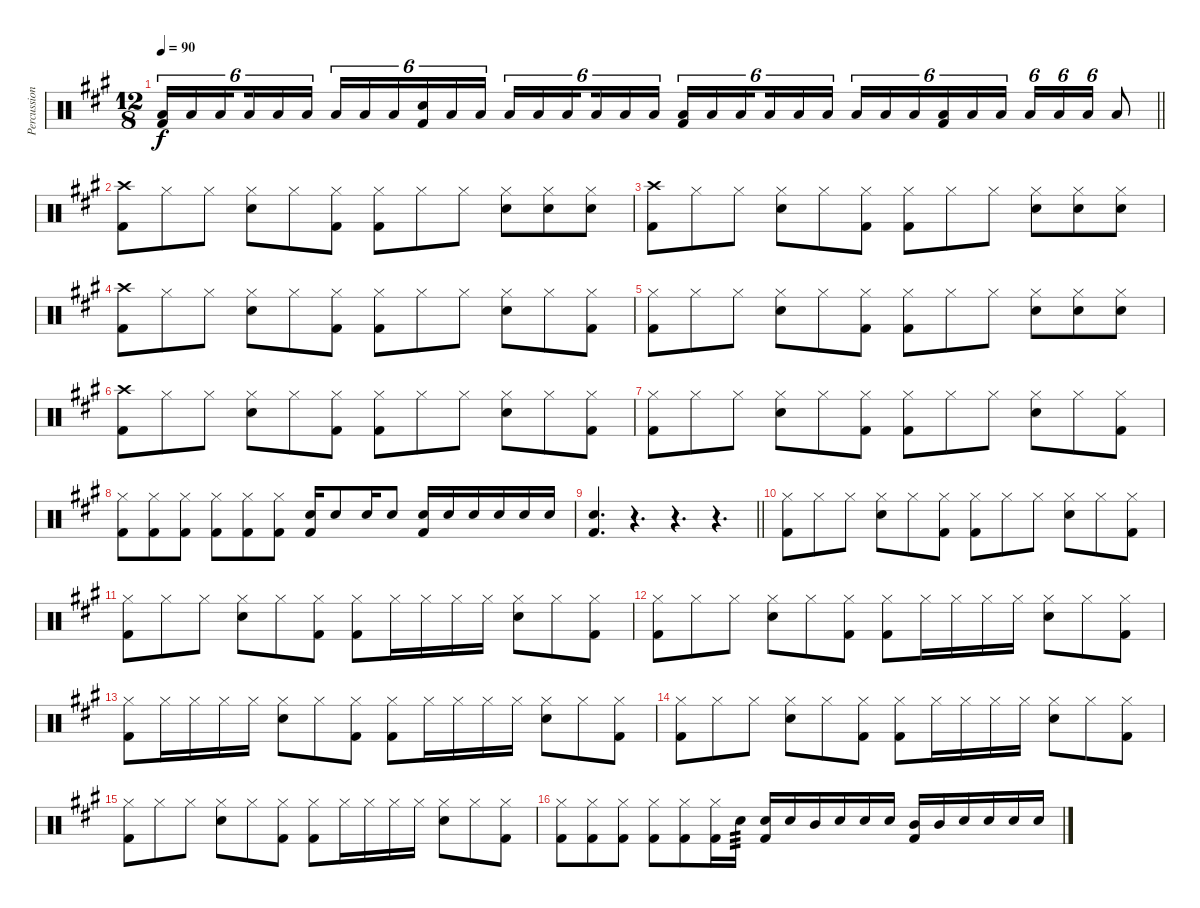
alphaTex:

\track ("Percussion" "Percussion") {instrument percussion}
\staff {score}
\articulation defaults
\ts (12 8)
\tempo 90
\clef neutral
\barLineRight lightlight
\ks a
("Low Tom (hit)" "Kick (hit) 2").16{tu (6 4) dy f} "Low Tom (hit)".16{tu (6 4)} "Low Tom (hit)".16{tu (6 4) beam splitsecondary} "Low Tom (hit)".16{tu (6 4)} "Low Tom (hit)".16{tu (6 4)} "Low Tom (hit)".16{tu (6 4) beam splitsecondary} "Low Tom (hit)".16{tu (6 4)} "Low Tom (hit)".16{tu (6 4)} "Low Tom (hit)".16{tu (6 4)} ("Snare (hit) 2" "Kick (hit) 2").16{tu (6 4)} "Low Tom (hit)".16{tu (6 4)} "Low Tom (hit)".16{tu (6 4) beam splitsecondary} "Low Tom (hit)".16{tu (6 4)} "Low Tom (hit)".16{tu (6 4)} "Low Tom (hit)".16{tu (6 4) beam splitsecondary} "Low Tom (hit)".16{tu (6 4)} "Low Tom (hit)".16{tu (6 4)} "Low Tom (hit)".16{tu (6 4)} ("Low Tom (hit)" "Kick (hit) 2").16{tu (6 4)} "Low Tom (hit)".16{tu (6 4)} "Low Tom (hit)".16{tu (6 4) beam splitsecondary} "Low Tom (hit)".16{tu (6 4)} "Low Tom (hit)".16{tu (6 4)} "Low Tom (hit)".16{tu (6 4) beam splitsecondary} "Low Tom (hit)".16{tu (6 4)} "Low Tom (hit)".16{tu (6 4)} "Low Tom (hit)".16{tu (6 4)} ("Low Floor Tom (hit)" "Kick (hit) 2").16{tu (6 4)} "Low Floor Tom (hit)".16{tu (6 4)} "Low Floor Tom (hit)".16{tu (6 4) beam splitsecondary} "Low Floor Tom (hit)".16{tu (6 4)} "Low Floor Tom (hit)".16{tu (6 4)} "Low Floor Tom (hit)".16{tu (6 4)} "Low Floor Tom (hit)".8 |
("Crash high (hit)" "Kick (hit) 2").8 "Hi-Hat (closed)".8 "Hi-Hat (closed)".8 ("Hi-Hat (closed)" "Snare (hit) 2").8 "Hi-Hat (closed)".8 ("Hi-Hat (closed)" "Kick (hit) 2").8 ("Hi-Hat (closed)" "Kick (hit) 2").8 "Hi-Hat (closed)".8 "Hi-Hat (closed)".8 ("Hi-Hat (closed)" "Snare (hit) 2").8 ("Hi-Hat (closed)" "Snare (hit) 2").8 ("Hi-Hat (closed)" "Snare (hit) 2").8 |
("Crash high (hit)" "Kick (hit) 2").8 "Hi-Hat (closed)".8 "Hi-Hat (closed)".8 ("Hi-Hat (closed)" "Snare (hit) 2").8 "Hi-Hat (closed)".8 ("Hi-Hat (closed)" "Kick (hit) 2").8 ("Hi-Hat (closed)" "Kick (hit) 2").8 "Hi-Hat (closed)".8 "Hi-Hat (closed)".8 ("Hi-Hat (closed)" "Snare (hit) 2").8 ("Hi-Hat (closed)" "Snare (hit) 2").8 ("Hi-Hat (closed)" "Snare (hit) 2").8 |
("Crash high (hit)" "Kick (hit) 2").8 "Hi-Hat (closed)".8 "Hi-Hat (closed)".8 ("Hi-Hat (closed)" "Snare (hit) 2").8 "Hi-Hat (closed)".8 ("Hi-Hat (closed)" "Kick (hit) 2").8 ("Hi-Hat (closed)" "Kick (hit) 2").8 "Hi-Hat (closed)".8 "Hi-Hat (closed)".8 ("Hi-Hat (closed)" "Snare (hit) 2").8 "Hi-Hat (closed)".8 ("Hi-Hat (closed)" "Kick (hit) 2").8 |
("Hi-Hat (closed)" "Kick (hit) 2").8 "Hi-Hat (closed)".8 "Hi-Hat (closed)".8 ("Hi-Hat (closed)" "Snare (hit) 2").8 "Hi-Hat (closed)".8 ("Hi-Hat (closed)" "Kick (hit) 2").8 ("Hi-Hat (closed)" "Kick (hit) 2").8 "Hi-Hat (closed)".8 "Hi-Hat (closed)".8 ("Hi-Hat (closed)" "Snare (hit) 2").8 ("Hi-Hat (closed)" "Snare (hit) 2").8 ("Hi-Hat (closed)" "Snare (hit) 2").8 |
("Crash high (hit)" "Kick (hit) 2").8 "Hi-Hat (closed)".8 "Hi-Hat (closed)".8 ("Hi-Hat (closed)" "Snare (hit) 2").8 "Hi-Hat (closed)".8 ("Hi-Hat (closed)" "Kick (hit) 2").8 ("Hi-Hat (closed)" "Kick (hit) 2").8 "Hi-Hat (closed)".8 "Hi-Hat (closed)".8 ("Hi-Hat (closed)" "Snare (hit) 2").8 "Hi-Hat (closed)".8 ("Hi-Hat (closed)" "Kick (hit) 2").8 |
("Hi-Hat (closed)" "Kick (hit) 2").8 "Hi-Hat (closed)".8 "Hi-Hat (closed)".8 ("Hi-Hat (closed)" "Snare (hit) 2").8 "Hi-Hat (closed)".8 ("Hi-Hat (closed)" "Kick (hit) 2").8 ("Hi-Hat (closed)" "Kick (hit) 2").8 "Hi-Hat (closed)".8 "Hi-Hat (closed)".8 ("Hi-Hat (closed)" "Snare (hit) 2").8 "Hi-Hat (closed)".8 ("Hi-Hat (closed)" "Kick (hit) 2").8 |
("Hi-Hat (closed)" "Kick (hit) 2").8 ("Hi-Hat (closed)" "Kick (hit) 2").8 ("Hi-Hat (closed)" "Kick (hit) 2").8 ("Hi-Hat (closed)" "Kick (hit) 2").8 ("Hi-Hat (closed)" "Kick (hit) 2").8 ("Hi-Hat (closed)" "Kick (hit) 2").8 ("Snare (hit) 2" "Kick (hit) 2").16 "Snare (hit) 2".8 "Snare (hit) 2".16 "Snare (hit) 2".8 ("Snare (hit) 2" "Kick (hit) 2").16 "Snare (hit) 2".16 "Snare (hit) 2".16 "Snare (hit) 2".16 "Snare (hit) 2".16 "Snare (hit) 2".16 |
\barLineRight lightlight
("Snare (hit) 2" "Kick (hit) 2").4{d} r.4{d} r.4{d} r.4{d} |
("Hi-Hat (closed)" "Kick (hit) 2").8 "Hi-Hat (closed)".8 "Hi-Hat (closed)".8 ("Hi-Hat (closed)" "Snare (hit) 2").8 "Hi-Hat (closed)".8 ("Hi-Hat (closed)" "Kick (hit) 2").8 ("Hi-Hat (closed)" "Kick (hit) 2").8 "Hi-Hat (closed)".8 "Hi-Hat (closed)".8 ("Hi-Hat (closed)" "Snare (hit) 2").8 "Hi-Hat (closed)".8 ("Hi-Hat (closed)" "Kick (hit) 2").8 |
("Hi-Hat (closed)" "Kick (hit) 2").8 "Hi-Hat (closed)".8 "Hi-Hat (closed)".8 ("Hi-Hat (closed)" "Snare (hit) 2").8 "Hi-Hat (closed)".8 ("Hi-Hat (closed)" "Kick (hit) 2").8 ("Hi-Hat (closed)" "Kick (hit) 2").8 "Hi-Hat (closed)".16 "Hi-Hat (closed)".16 "Hi-Hat (closed)".16 "Hi-Hat (closed)".16 ("Hi-Hat (closed)" "Snare (hit) 2").8 "Hi-Hat (closed)".8 ("Hi-Hat (closed)" "Kick (hit) 2").8 |
("Hi-Hat (closed)" "Kick (hit) 2").8 "Hi-Hat (closed)".8 "Hi-Hat (closed)".8 ("Hi-Hat (closed)" "Snare (hit) 2").8 "Hi-Hat (closed)".8 ("Hi-Hat (closed)" "Kick (hit) 2").8 ("Hi-Hat (closed)" "Kick (hit) 2").8 "Hi-Hat (closed)".16 "Hi-Hat (closed)".16 "Hi-Hat (closed)".16 "Hi-Hat (closed)".16 ("Hi-Hat (closed)" "Snare (hit) 2").8 "Hi-Hat (closed)".8 ("Hi-Hat (closed)" "Kick (hit) 2").8 |
("Hi-Hat (closed)" "Kick (hit) 2").8 "Hi-Hat (closed)".16 "Hi-Hat (closed)".16 "Hi-Hat (closed)".16 "Hi-Hat (closed)".16 ("Hi-Hat (closed)" "Snare (hit) 2").8 "Hi-Hat (closed)".8 ("Hi-Hat (closed)" "Kick (hit) 2").8 ("Hi-Hat (closed)" "Kick (hit) 2").8 "Hi-Hat (closed)".16 "Hi-Hat (closed)".16 "Hi-Hat (closed)".16 "Hi-Hat (closed)".16 ("Hi-Hat (closed)" "Snare (hit) 2").8 "Hi-Hat (closed)".8 ("Hi-Hat (closed)" "Kick (hit) 2").8 |
("Hi-Hat (closed)" "Kick (hit) 2").8 "Hi-Hat (closed)".8 "Hi-Hat (closed)".8 ("Hi-Hat (closed)" "Snare (hit) 2").8 "Hi-Hat (closed)".8 ("Hi-Hat (closed)" "Kick (hit) 2").8 ("Hi-Hat (closed)" "Kick (hit) 2").8 "Hi-Hat (closed)".16 "Hi-Hat (closed)".16 "Hi-Hat (closed)".16 "Hi-Hat (closed)".16 ("Hi-Hat (closed)" "Snare (hit) 2").8 "Hi-Hat (closed)".8 ("Hi-Hat (closed)" "Kick (hit) 2").8 |
("Hi-Hat (closed)" "Kick (hit) 2").8 "Hi-Hat (closed)".8 "Hi-Hat (closed)".8 ("Hi-Hat (closed)" "Snare (hit) 2").8 "Hi-Hat (closed)".8 ("Hi-Hat (closed)" "Kick (hit) 2").8 ("Hi-Hat (closed)" "Kick (hit) 2").8 "Hi-Hat (closed)".16 "Hi-Hat (closed)".16 "Hi-Hat (closed)".16 "Hi-Hat (closed)".16 ("Hi-Hat (closed)" "Snare (hit) 2").8 "Hi-Hat (closed)".8 ("Hi-Hat (closed)" "Kick (hit) 2").8 |
("Hi-Hat (closed)" "Kick (hit) 2").8 ("Hi-Hat (closed)" "Kick (hit) 2").8 ("Hi-Hat (closed)" "Kick (hit) 2").8 ("Hi-Hat (closed)" "Kick (hit) 2").8 ("Hi-Hat (closed)" "Kick (hit) 2").8 ("Hi-Hat (closed)" "Kick (hit) 2").16 "Snare (hit) 2".16{tp 3} ("Snare (hit) 2" "Kick (hit) 2").16 "Snare (hit) 2".16 "Mid Tom (hit)".16 "Snare (hit) 2".16 "Snare (hit) 2".16 "Snare (hit) 2".16 ("Mid Tom (hit)" "Kick (hit) 2").16 "Mid Tom (hit)".16 "Snare (hit) 2".16 "Snare (hit) 2".16 "Snare (hit) 2".16 "Snare (hit) 2".16
